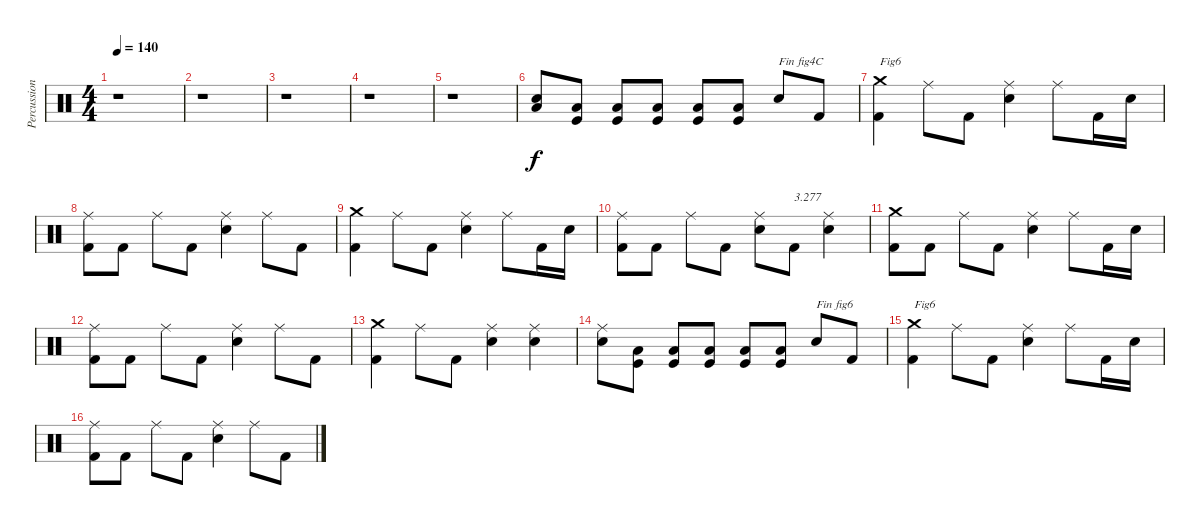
\track ("Percussions" "Percussion") {instrument percussion}
\staff {score}
\articulation defaults
\ts (4 4)
\tempo 140
\clef neutral
\ks c
r.1{dy f} |
r.1 |
r.1 |
r.1 |
r.1 |
("Low Floor Tom (hit)" "Electric Snare (hit)").8 ("Kick (hit)" "Low Floor Tom (hit)").8 ("Kick (hit)" "Low Floor Tom (hit)").8 ("Kick (hit)" "Low Floor Tom (hit)").8 ("Kick (hit)" "Low Floor Tom (hit)").8 ("Kick (hit)" "Low Floor Tom (hit)").8 "Electric Snare (hit)".8{txt "Fin fig4C"} "Kick (hit) 2".8 |
("Kick (hit) 2" "Crash medium (hit)").4{txt "Fig6"} "Ride (middle)".8 "Kick (hit) 2".8 ("Electric Snare (hit)" "Ride (middle)").4 "Ride (middle)".8 "Kick (hit) 2".16 "Electric Snare (hit)".16 |
("Kick (hit) 2" "Ride (middle)").8 "Kick (hit) 2".8 "Ride (middle)".8 "Kick (hit) 2".8 ("Electric Snare (hit)" "Ride (middle)").4 "Ride (middle)".8 "Kick (hit) 2".8 |
("Kick (hit) 2" "Crash medium (hit)").4 "Ride (middle)".8 "Kick (hit) 2".8 ("Electric Snare (hit)" "Ride (middle)").4 "Ride (middle)".8 "Kick (hit) 2".16 "Electric Snare (hit)".16 |
("Kick (hit) 2" "Ride (middle)").8 "Kick (hit) 2".8 "Ride (middle)".8 "Kick (hit) 2".8 ("Electric Snare (hit)" "Ride (middle)").8 "Kick (hit) 2".8{txt "3.277"} ("Electric Snare (hit)" "Ride (middle)").4 |
("Kick (hit) 2" "Crash medium (hit)").8 "Kick (hit) 2".8 "Ride (middle)".8 "Kick (hit) 2".8 ("Electric Snare (hit)" "Ride (middle)").4 "Ride (middle)".8 "Kick (hit) 2".16 "Electric Snare (hit)".16 |
("Kick (hit) 2" "Ride (middle)").8 "Kick (hit) 2".8 "Ride (middle)".8 "Kick (hit) 2".8 ("Electric Snare (hit)" "Ride (middle)").4 "Ride (middle)".8 "Kick (hit) 2".8 |
("Kick (hit) 2" "Crash medium (hit)").4 "Ride (middle)".8 "Kick (hit) 2".8 ("Electric Snare (hit)" "Ride (middle)").4 ("Electric Snare (hit)" "Ride (middle)").4 |
("Electric Snare (hit)" "Ride (middle)").8 ("Kick (hit)" "Low Floor Tom (hit)").8 ("Kick (hit)" "Low Floor Tom (hit)").8 ("Kick (hit)" "Low Floor Tom (hit)").8 ("Kick (hit)" "Low Floor Tom (hit)").8 ("Kick (hit)" "Low Floor Tom (hit)").8 "Electric Snare (hit)".8{txt "Fin fig6"} "Kick (hit) 2".8 |
("Kick (hit) 2" "Crash medium (hit)").4{txt "Fig6"} "Ride (middle)".8 "Kick (hit) 2".8 ("Electric Snare (hit)" "Ride (middle)").4 "Ride (middle)".8 "Kick (hit) 2".16 "Electric Snare (hit)".16 |
("Kick (hit) 2" "Ride (middle)").8 "Kick (hit) 2".8 "Ride (middle)".8 "Kick (hit) 2".8 ("Electric Snare (hit)" "Ride (middle)").4 "Ride (middle)".8 "Kick (hit) 2".8
